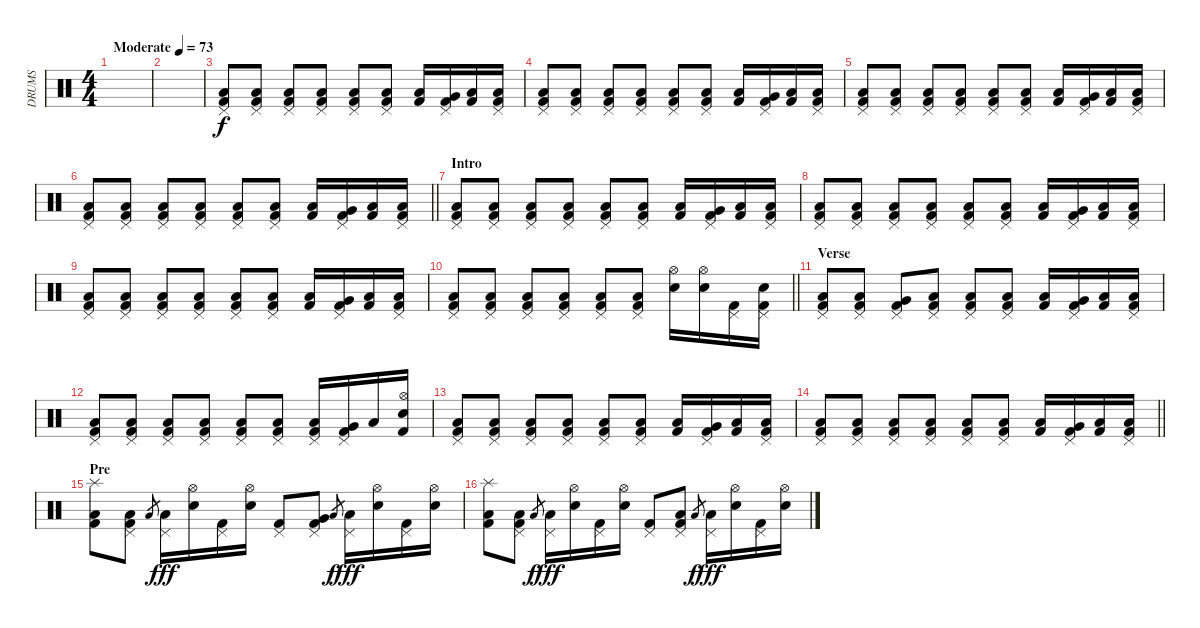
\track ("DRUMS" "DRUMS") {instrument percussion}
\staff {score}
\articulation defaults
\ts (4 4)
\tempo (73 "Moderate")
\clef neutral
\ks c
|
|
("Pedal Hi-Hat (hit)" "Low Floor Tom (hit)" "Kick (hit) 2").8 ("Pedal Hi-Hat (hit)" "Low Floor Tom (hit)" "Kick (hit) 2").8 ("Pedal Hi-Hat (hit)" "Low Floor Tom (hit)" "Kick (hit) 2").8 ("Pedal Hi-Hat (hit)" "Low Floor Tom (hit)" "Kick (hit) 2").8 ("Pedal Hi-Hat (hit)" "Low Floor Tom (hit)" "Kick (hit) 2").8 ("Pedal Hi-Hat (hit)" "Low Floor Tom (hit)" "Kick (hit) 2").8 ("Low Floor Tom (hit)" "Kick (hit) 2").16 ("Pedal Hi-Hat (hit)" "Very Low Tom (hit)" "Kick (hit) 2").16 ("Low Tom (hit)" "Kick (hit) 2").16 ("Pedal Hi-Hat (hit)" "Low Floor Tom (hit)" "Kick (hit) 2").16 |
("Pedal Hi-Hat (hit)" "Low Floor Tom (hit)" "Kick (hit) 2").8 ("Pedal Hi-Hat (hit)" "Low Floor Tom (hit)" "Kick (hit) 2").8 ("Pedal Hi-Hat (hit)" "Low Floor Tom (hit)" "Kick (hit) 2").8 ("Pedal Hi-Hat (hit)" "Low Floor Tom (hit)" "Kick (hit) 2").8 ("Pedal Hi-Hat (hit)" "Low Floor Tom (hit)" "Kick (hit) 2").8 ("Pedal Hi-Hat (hit)" "Low Floor Tom (hit)" "Kick (hit) 2").8 ("Low Floor Tom (hit)" "Kick (hit) 2").16 ("Pedal Hi-Hat (hit)" "Very Low Tom (hit)" "Kick (hit) 2").16 ("Low Tom (hit)" "Kick (hit) 2").16 ("Pedal Hi-Hat (hit)" "Low Floor Tom (hit)" "Kick (hit) 2").16 |
("Pedal Hi-Hat (hit)" "Low Floor Tom (hit)" "Kick (hit) 2").8 ("Pedal Hi-Hat (hit)" "Low Floor Tom (hit)" "Kick (hit) 2").8 ("Pedal Hi-Hat (hit)" "Low Floor Tom (hit)" "Kick (hit) 2").8 ("Pedal Hi-Hat (hit)" "Low Floor Tom (hit)" "Kick (hit) 2").8 ("Pedal Hi-Hat (hit)" "Low Floor Tom (hit)" "Kick (hit) 2").8 ("Pedal Hi-Hat (hit)" "Low Floor Tom (hit)" "Kick (hit) 2").8 ("Low Floor Tom (hit)" "Kick (hit) 2").16 ("Pedal Hi-Hat (hit)" "Very Low Tom (hit)" "Kick (hit) 2").16 ("Low Tom (hit)" "Kick (hit) 2").16 ("Pedal Hi-Hat (hit)" "Low Floor Tom (hit)" "Kick (hit) 2").16 |
\barLineRight lightlight
("Pedal Hi-Hat (hit)" "Low Floor Tom (hit)" "Kick (hit) 2").8 ("Pedal Hi-Hat (hit)" "Low Floor Tom (hit)" "Kick (hit) 2").8 ("Pedal Hi-Hat (hit)" "Low Floor Tom (hit)" "Kick (hit) 2").8 ("Pedal Hi-Hat (hit)" "Low Floor Tom (hit)" "Kick (hit) 2").8 ("Pedal Hi-Hat (hit)" "Low Floor Tom (hit)" "Kick (hit) 2").8 ("Pedal Hi-Hat (hit)" "Low Floor Tom (hit)" "Kick (hit) 2").8 ("Low Floor Tom (hit)" "Kick (hit) 2").16 ("Pedal Hi-Hat (hit)" "Very Low Tom (hit)" "Kick (hit) 2").16 ("Low Tom (hit)" "Kick (hit) 2").16 ("Pedal Hi-Hat (hit)" "Low Floor Tom (hit)" "Kick (hit) 2").16 |
\section ("" "Intro")
("Pedal Hi-Hat (hit)" "Low Floor Tom (hit)" "Kick (hit) 2").8 ("Pedal Hi-Hat (hit)" "Low Floor Tom (hit)" "Kick (hit) 2").8 ("Pedal Hi-Hat (hit)" "Low Floor Tom (hit)" "Kick (hit) 2").8 ("Pedal Hi-Hat (hit)" "Low Floor Tom (hit)" "Kick (hit) 2").8 ("Pedal Hi-Hat (hit)" "Low Floor Tom (hit)" "Kick (hit) 2").8 ("Pedal Hi-Hat (hit)" "Low Floor Tom (hit)" "Kick (hit) 2").8 ("Low Floor Tom (hit)" "Kick (hit) 2").16 ("Pedal Hi-Hat (hit)" "Very Low Tom (hit)" "Kick (hit) 2").16 ("Low Tom (hit)" "Kick (hit) 2").16 ("Pedal Hi-Hat (hit)" "Low Floor Tom (hit)" "Kick (hit) 2").16 |
("Pedal Hi-Hat (hit)" "Low Floor Tom (hit)" "Kick (hit) 2").8 ("Pedal Hi-Hat (hit)" "Low Floor Tom (hit)" "Kick (hit) 2").8 ("Pedal Hi-Hat (hit)" "Low Floor Tom (hit)" "Kick (hit) 2").8 ("Pedal Hi-Hat (hit)" "Low Floor Tom (hit)" "Kick (hit) 2").8 ("Pedal Hi-Hat (hit)" "Low Floor Tom (hit)" "Kick (hit) 2").8 ("Pedal Hi-Hat (hit)" "Low Floor Tom (hit)" "Kick (hit) 2").8 ("Low Floor Tom (hit)" "Kick (hit) 2").16 ("Pedal Hi-Hat (hit)" "Very Low Tom (hit)" "Kick (hit) 2").16 ("Low Tom (hit)" "Kick (hit) 2").16 ("Pedal Hi-Hat (hit)" "Low Floor Tom (hit)" "Kick (hit) 2").16 |
("Pedal Hi-Hat (hit)" "Low Floor Tom (hit)" "Kick (hit) 2").8 ("Pedal Hi-Hat (hit)" "Low Floor Tom (hit)" "Kick (hit) 2").8 ("Pedal Hi-Hat (hit)" "Low Floor Tom (hit)" "Kick (hit) 2").8 ("Pedal Hi-Hat (hit)" "Low Floor Tom (hit)" "Kick (hit) 2").8 ("Pedal Hi-Hat (hit)" "Low Floor Tom (hit)" "Kick (hit) 2").8 ("Pedal Hi-Hat (hit)" "Low Floor Tom (hit)" "Kick (hit) 2").8 ("Low Floor Tom (hit)" "Kick (hit) 2").16 ("Pedal Hi-Hat (hit)" "Very Low Tom (hit)" "Kick (hit) 2").16 ("Low Tom (hit)" "Kick (hit) 2").16 ("Pedal Hi-Hat (hit)" "Low Floor Tom (hit)" "Kick (hit) 2").16 |
\barLineRight lightlight
("Pedal Hi-Hat (hit)" "Low Floor Tom (hit)" "Kick (hit) 2").8 ("Pedal Hi-Hat (hit)" "Low Floor Tom (hit)" "Kick (hit) 2").8 ("Pedal Hi-Hat (hit)" "Low Floor Tom (hit)" "Kick (hit) 2").8 ("Pedal Hi-Hat (hit)" "Low Floor Tom (hit)" "Kick (hit) 2").8 ("Pedal Hi-Hat (hit)" "Low Floor Tom (hit)" "Kick (hit) 2").8 ("Pedal Hi-Hat (hit)" "Low Floor Tom (hit)" "Kick (hit) 2").8 ("Hi-Hat (open)" "Electric Snare (hit)").16 ("Hi-Hat (open)" "Electric Snare (hit)").16 ("Pedal Hi-Hat (hit)" "Kick (hit) 2").16 ("Pedal Hi-Hat (hit)" "Electric Snare (hit)" "Kick (hit) 2").16 |
\section ("" "Verse")
("Pedal Hi-Hat (hit)" "Low Floor Tom (hit)" "Kick (hit) 2").8 ("Pedal Hi-Hat (hit)" "Low Floor Tom (hit)" "Kick (hit) 2").8 ("Pedal Hi-Hat (hit)" "Very Low Tom (hit)" "Kick (hit) 2").8 ("Pedal Hi-Hat (hit)" "Low Floor Tom (hit)" "Kick (hit) 2").8 ("Pedal Hi-Hat (hit)" "Low Floor Tom (hit)" "Kick (hit) 2").8 ("Pedal Hi-Hat (hit)" "Low Floor Tom (hit)" "Kick (hit) 2").8 ("Low Floor Tom (hit)" "Kick (hit) 2").16 ("Pedal Hi-Hat (hit)" "Very Low Tom (hit)" "Kick (hit) 2").16 ("Low Tom (hit)" "Kick (hit) 2").16 ("Pedal Hi-Hat (hit)" "Low Floor Tom (hit)" "Kick (hit) 2").16 |
("Pedal Hi-Hat (hit)" "Low Floor Tom (hit)" "Kick (hit) 2").8 ("Pedal Hi-Hat (hit)" "Low Floor Tom (hit)" "Kick (hit) 2").8 ("Pedal Hi-Hat (hit)" "Low Floor Tom (hit)" "Kick (hit) 2").8 ("Pedal Hi-Hat (hit)" "Low Floor Tom (hit)" "Kick (hit) 2").8 ("Pedal Hi-Hat (hit)" "Low Floor Tom (hit)" "Kick (hit) 2").8 ("Pedal Hi-Hat (hit)" "Low Floor Tom (hit)" "Kick (hit) 2").8 ("Pedal Hi-Hat (hit)" "Low Floor Tom (hit)" "Kick (hit) 2").16 ("Pedal Hi-Hat (hit)" "Very Low Tom (hit)" "Kick (hit) 2").16 "Low Tom (hit)".16 ("Hi-Hat (open)" "Electric Snare (hit)" "Kick (hit) 2").16 |
("Pedal Hi-Hat (hit)" "Low Floor Tom (hit)" "Kick (hit) 2").8 ("Pedal Hi-Hat (hit)" "Low Floor Tom (hit)" "Kick (hit) 2").8 ("Pedal Hi-Hat (hit)" "Low Floor Tom (hit)" "Kick (hit) 2").8 ("Pedal Hi-Hat (hit)" "Low Floor Tom (hit)" "Kick (hit) 2").8 ("Pedal Hi-Hat (hit)" "Low Floor Tom (hit)" "Kick (hit) 2").8 ("Pedal Hi-Hat (hit)" "Low Floor Tom (hit)" "Kick (hit) 2").8 ("Low Floor Tom (hit)" "Kick (hit) 2").16 ("Pedal Hi-Hat (hit)" "Very Low Tom (hit)" "Kick (hit) 2").16 ("Low Tom (hit)" "Kick (hit) 2").16 ("Pedal Hi-Hat (hit)" "Low Floor Tom (hit)" "Kick (hit) 2").16 |
\barLineRight lightlight
("Pedal Hi-Hat (hit)" "Low Floor Tom (hit)" "Kick (hit) 2").8 ("Pedal Hi-Hat (hit)" "Low Floor Tom (hit)" "Kick (hit) 2").8 ("Pedal Hi-Hat (hit)" "Low Floor Tom (hit)" "Kick (hit) 2").8 ("Pedal Hi-Hat (hit)" "Low Floor Tom (hit)" "Kick (hit) 2").8 ("Pedal Hi-Hat (hit)" "Low Floor Tom (hit)" "Kick (hit) 2").8 ("Pedal Hi-Hat (hit)" "Low Floor Tom (hit)" "Kick (hit) 2").8 ("Low Floor Tom (hit)" "Kick (hit) 2").16 ("Pedal Hi-Hat (hit)" "Very Low Tom (hit)" "Kick (hit) 2").16 ("Low Tom (hit)" "Kick (hit) 2").16 ("Pedal Hi-Hat (hit)" "Low Floor Tom (hit)" "Kick (hit) 2").16 |
\section ("" "Pre")
("Splash (hit)" "Low Tom (hit)" "Kick (hit) 2").8 ("Pedal Hi-Hat (hit)" "Low Tom (hit)" "Kick (hit) 2").8 "Low Tom (hit)".8{gr dy f} ("Pedal Hi-Hat (hit)" "Low Tom (hit)").16{dy fff} ("Hi-Hat (open)" "Electric Snare (hit)").16 ("Pedal Hi-Hat (hit)" "Kick (hit) 2").16 ("Hi-Hat (open)" "Electric Snare (hit)").16 ("Pedal Hi-Hat (hit)" "Kick (hit) 2").8 ("Pedal Hi-Hat (hit)" "Very Low Tom (hit)" "Kick (hit) 2").8 "Low Tom (hit)".8{gr dy f} ("Pedal Hi-Hat (hit)" "Low Tom (hit)").16{dy fff} ("Hi-Hat (open)" "Electric Snare (hit)").16 ("Pedal Hi-Hat (hit)" "Kick (hit) 2").16 ("Hi-Hat (open)" "Electric Snare (hit)").16 |
("Splash (hit)" "Low Tom (hit)" "Kick (hit) 2").8 ("Pedal Hi-Hat (hit)" "Low Tom (hit)" "Kick (hit) 2").8 "Low Tom (hit)".8{gr dy f} ("Pedal Hi-Hat (hit)" "Low Tom (hit)").16{dy fff} ("Hi-Hat (open)" "Electric Snare (hit)").16 ("Pedal Hi-Hat (hit)" "Kick (hit) 2").16 ("Hi-Hat (open)" "Electric Snare (hit)").16 ("Pedal Hi-Hat (hit)" "Kick (hit) 2").8 ("Pedal Hi-Hat (hit)" "Low Floor Tom (hit)" "Kick (hit) 2").8 "Low Tom (hit)".8{gr dy f} ("Pedal Hi-Hat (hit)" "Low Tom (hit)").16{dy fff} ("Hi-Hat (open)" "Electric Snare (hit)").16 ("Pedal Hi-Hat (hit)" "Kick (hit) 2").16 ("Hi-Hat (open)" "Electric Snare (hit)").16
